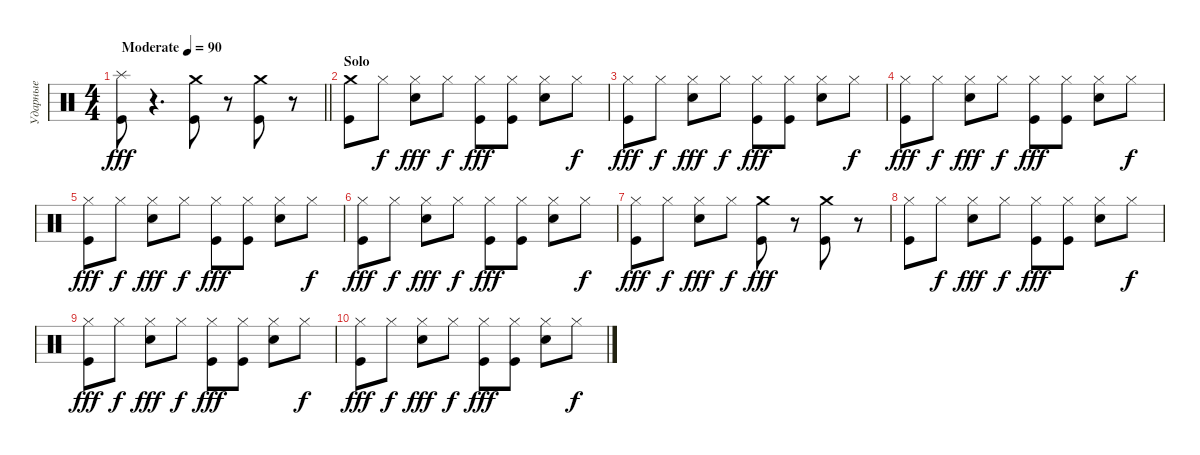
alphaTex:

\track ("Ударные" "Ударные") {instrument percussion}
\staff {score}
\articulation defaults
\ts (4 4)
\tempo (90 "Moderate")
\clef neutral
\barLineRight lightlight
\ks c
("Splash (hit)" "Kick (hit)").8{dy fff} r.4{d} ("Crash medium (hit)" "Kick (hit)").8 r.8 ("Crash medium (hit)" "Kick (hit)").8 r.8 |
\section ("" "Solo")
("Crash medium (hit)" "Kick (hit)").8 "Hi-Hat (closed)".8{dy f} ("Hi-Hat (closed)" "Snare (hit) 2").8{dy fff} "Hi-Hat (closed)".8{dy f} ("Hi-Hat (closed)" "Kick (hit)").8{dy fff} ("Hi-Hat (closed)" "Kick (hit)").8 ("Hi-Hat (closed)" "Snare (hit) 2").8 "Hi-Hat (closed)".8{dy f} |
("Hi-Hat (closed)" "Kick (hit)").8{dy fff} "Hi-Hat (closed)".8{dy f} ("Hi-Hat (closed)" "Snare (hit) 2").8{dy fff} "Hi-Hat (closed)".8{dy f} ("Hi-Hat (closed)" "Kick (hit)").8{dy fff} ("Hi-Hat (closed)" "Kick (hit)").8 ("Hi-Hat (closed)" "Snare (hit) 2").8 "Hi-Hat (closed)".8{dy f} |
("Hi-Hat (closed)" "Kick (hit)").8{dy fff} "Hi-Hat (closed)".8{dy f} ("Hi-Hat (closed)" "Snare (hit) 2").8{dy fff} "Hi-Hat (closed)".8{dy f} ("Hi-Hat (closed)" "Kick (hit)").8{dy fff} ("Hi-Hat (closed)" "Kick (hit)").8 ("Hi-Hat (closed)" "Snare (hit) 2").8 "Hi-Hat (closed)".8{dy f} |
("Hi-Hat (closed)" "Kick (hit)").8{dy fff} "Hi-Hat (closed)".8{dy f} ("Hi-Hat (closed)" "Snare (hit) 2").8{dy fff} "Hi-Hat (closed)".8{dy f} ("Hi-Hat (closed)" "Kick (hit)").8{dy fff} ("Hi-Hat (closed)" "Kick (hit)").8 ("Hi-Hat (closed)" "Snare (hit) 2").8 "Hi-Hat (closed)".8{dy f} |
("Hi-Hat (closed)" "Kick (hit)").8{dy fff} "Hi-Hat (closed)".8{dy f} ("Hi-Hat (closed)" "Snare (hit) 2").8{dy fff} "Hi-Hat (closed)".8{dy f} ("Hi-Hat (closed)" "Kick (hit)").8{dy fff} ("Hi-Hat (closed)" "Kick (hit)").8 ("Hi-Hat (closed)" "Snare (hit) 2").8 "Hi-Hat (closed)".8{dy f} |
("Hi-Hat (closed)" "Kick (hit)").8{dy fff} "Hi-Hat (closed)".8{dy f} ("Hi-Hat (closed)" "Snare (hit) 2").8{dy fff} "Hi-Hat (closed)".8{dy f} ("Crash medium (hit)" "Kick (hit)").8{dy fff} r.8 ("Crash medium (hit)" "Kick (hit)").8 r.8 |
("Hi-Hat (closed)" "Kick (hit)").8 "Hi-Hat (closed)".8{dy f} ("Hi-Hat (closed)" "Snare (hit) 2").8{dy fff} "Hi-Hat (closed)".8{dy f} ("Hi-Hat (closed)" "Kick (hit)").8{dy fff} ("Hi-Hat (closed)" "Kick (hit)").8 ("Hi-Hat (closed)" "Snare (hit) 2").8 "Hi-Hat (closed)".8{dy f} |
("Hi-Hat (closed)" "Kick (hit)").8{dy fff} "Hi-Hat (closed)".8{dy f} ("Hi-Hat (closed)" "Snare (hit) 2").8{dy fff} "Hi-Hat (closed)".8{dy f} ("Hi-Hat (closed)" "Kick (hit)").8{dy fff} ("Hi-Hat (closed)" "Kick (hit)").8 ("Hi-Hat (closed)" "Snare (hit) 2").8 "Hi-Hat (closed)".8{dy f} |
("Hi-Hat (closed)" "Kick (hit)").8{dy fff} "Hi-Hat (closed)".8{dy f} ("Hi-Hat (closed)" "Snare (hit) 2").8{dy fff} "Hi-Hat (closed)".8{dy f} ("Hi-Hat (closed)" "Kick (hit)").8{dy fff} ("Hi-Hat (closed)" "Kick (hit)").8 ("Hi-Hat (closed)" "Snare (hit) 2").8 "Hi-Hat (closed)".8{dy f}
